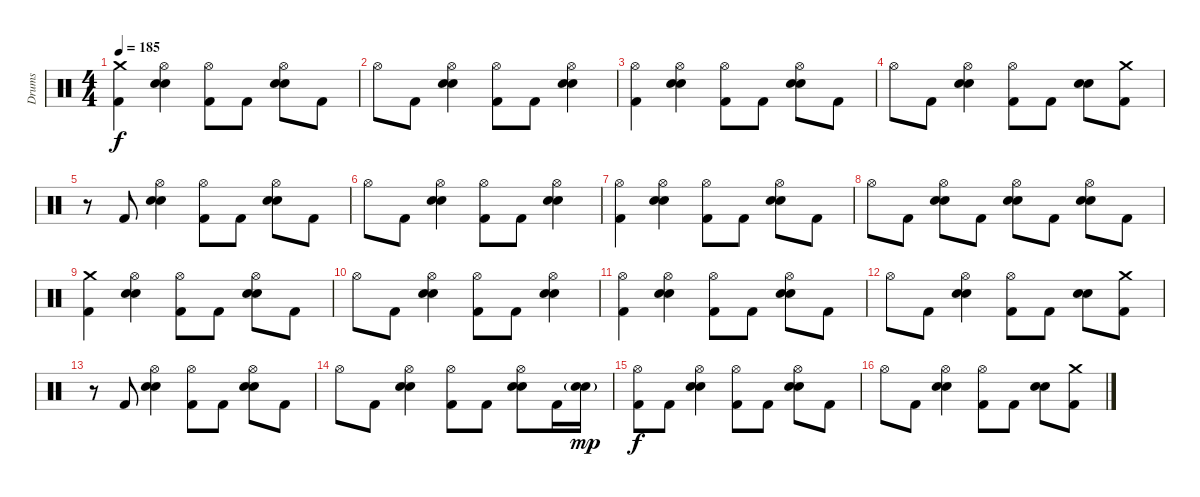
\track ("Drums" "Drums") {instrument percussion}
\staff {score}
\articulation defaults
\ts (4 4)
\tempo 185
\clef neutral
\ks c
("Crash medium (hit)" "Kick (hit) 2").4{dy f} ("Hi-Hat (open)" "Snare (hit) 2" "Electric Snare (hit)").4 ("Hi-Hat (open)" "Kick (hit) 2").8 "Kick (hit) 2".8 ("Hi-Hat (open)" "Snare (hit) 2" "Electric Snare (hit)").8 "Kick (hit) 2".8 |
"Hi-Hat (open)".8 "Kick (hit) 2".8 ("Hi-Hat (open)" "Electric Snare (hit)" "Snare (hit) 2").4 ("Hi-Hat (open)" "Kick (hit) 2").8 "Kick (hit) 2".8 ("Hi-Hat (open)" "Electric Snare (hit)" "Snare (hit) 2").4 |
("Hi-Hat (open)" "Kick (hit) 2").4 ("Hi-Hat (open)" "Electric Snare (hit)" "Snare (hit) 2").4 ("Hi-Hat (open)" "Kick (hit) 2").8 "Kick (hit) 2".8 ("Hi-Hat (open)" "Electric Snare (hit)" "Snare (hit) 2").8 "Kick (hit) 2".8 |
"Hi-Hat (open)".8 "Kick (hit) 2".8 ("Hi-Hat (open)" "Electric Snare (hit)" "Snare (hit) 2").4 ("Hi-Hat (open)" "Kick (hit) 2").8 "Kick (hit) 2".8 ("Electric Snare (hit)" "Snare (hit) 2").8 ("Crash medium (hit)" "Kick (hit) 2").8 |
r.8 "Kick (hit) 2".8 ("Hi-Hat (open)" "Electric Snare (hit)" "Snare (hit) 2").4 ("Hi-Hat (open)" "Kick (hit) 2").8 "Kick (hit) 2".8 ("Hi-Hat (open)" "Electric Snare (hit)" "Snare (hit) 2").8 "Kick (hit) 2".8 |
"Hi-Hat (open)".8 "Kick (hit) 2".8 ("Hi-Hat (open)" "Electric Snare (hit)" "Snare (hit) 2").4 ("Hi-Hat (open)" "Kick (hit) 2").8 "Kick (hit) 2".8 ("Hi-Hat (open)" "Electric Snare (hit)" "Snare (hit) 2").4 |
("Hi-Hat (open)" "Kick (hit) 2").4 ("Hi-Hat (open)" "Electric Snare (hit)" "Snare (hit) 2").4 ("Hi-Hat (open)" "Kick (hit) 2").8 "Kick (hit) 2".8 ("Hi-Hat (open)" "Electric Snare (hit)" "Snare (hit) 2").8 "Kick (hit) 2".8 |
"Hi-Hat (open)".8 "Kick (hit) 2".8 ("Hi-Hat (open)" "Electric Snare (hit)" "Snare (hit) 2").8 "Kick (hit) 2".8 ("Hi-Hat (open)" "Electric Snare (hit)" "Snare (hit) 2").8 "Kick (hit) 2".8 ("Hi-Hat (open)" "Electric Snare (hit)" "Snare (hit) 2").8 "Kick (hit) 2".8 |
("Crash medium (hit)" "Kick (hit) 2").4 ("Hi-Hat (open)" "Snare (hit) 2" "Electric Snare (hit)").4 ("Hi-Hat (open)" "Kick (hit) 2").8 "Kick (hit) 2".8 ("Hi-Hat (open)" "Snare (hit) 2" "Electric Snare (hit)").8 "Kick (hit) 2".8 |
"Hi-Hat (open)".8 "Kick (hit) 2".8 ("Hi-Hat (open)" "Electric Snare (hit)" "Snare (hit) 2").4 ("Hi-Hat (open)" "Kick (hit) 2").8 "Kick (hit) 2".8 ("Hi-Hat (open)" "Electric Snare (hit)" "Snare (hit) 2").4 |
("Hi-Hat (open)" "Kick (hit) 2").4 ("Hi-Hat (open)" "Electric Snare (hit)" "Snare (hit) 2").4 ("Hi-Hat (open)" "Kick (hit) 2").8 "Kick (hit) 2".8 ("Hi-Hat (open)" "Electric Snare (hit)" "Snare (hit) 2").8 "Kick (hit) 2".8 |
"Hi-Hat (open)".8 "Kick (hit) 2".8 ("Hi-Hat (open)" "Electric Snare (hit)" "Snare (hit) 2").4 ("Hi-Hat (open)" "Kick (hit) 2").8 "Kick (hit) 2".8 ("Electric Snare (hit)" "Snare (hit) 2").8 ("Crash medium (hit)" "Kick (hit) 2").8 |
r.8 "Kick (hit) 2".8 ("Hi-Hat (open)" "Electric Snare (hit)" "Snare (hit) 2").4 ("Hi-Hat (open)" "Kick (hit) 2").8 "Kick (hit) 2".8 ("Hi-Hat (open)" "Electric Snare (hit)" "Snare (hit) 2").8 "Kick (hit) 2".8 |
"Hi-Hat (open)".8 "Kick (hit) 2".8 ("Hi-Hat (open)" "Electric Snare (hit)" "Snare (hit) 2").4 ("Hi-Hat (open)" "Kick (hit) 2").8 "Kick (hit) 2".8 ("Hi-Hat (open)" "Electric Snare (hit)" "Snare (hit) 2").8 "Kick (hit) 2".16 ("Electric Snare (hit)"{g} "Snare (hit) 2"{g}).16{dy mp} |
("Hi-Hat (open)" "Kick (hit) 2").8{dy f} "Kick (hit) 2".8 ("Hi-Hat (open)" "Electric Snare (hit)" "Snare (hit) 2").4 ("Hi-Hat (open)" "Kick (hit) 2").8 "Kick (hit) 2".8 ("Hi-Hat (open)" "Electric Snare (hit)" "Snare (hit) 2").8 "Kick (hit) 2".8 |
"Hi-Hat (open)".8 "Kick (hit) 2".8 ("Hi-Hat (open)" "Electric Snare (hit)" "Snare (hit) 2").4 ("Hi-Hat (open)" "Kick (hit) 2").8 "Kick (hit) 2".8 ("Electric Snare (hit)" "Snare (hit) 2").8 ("Crash medium (hit)" "Kick (hit) 2").8
